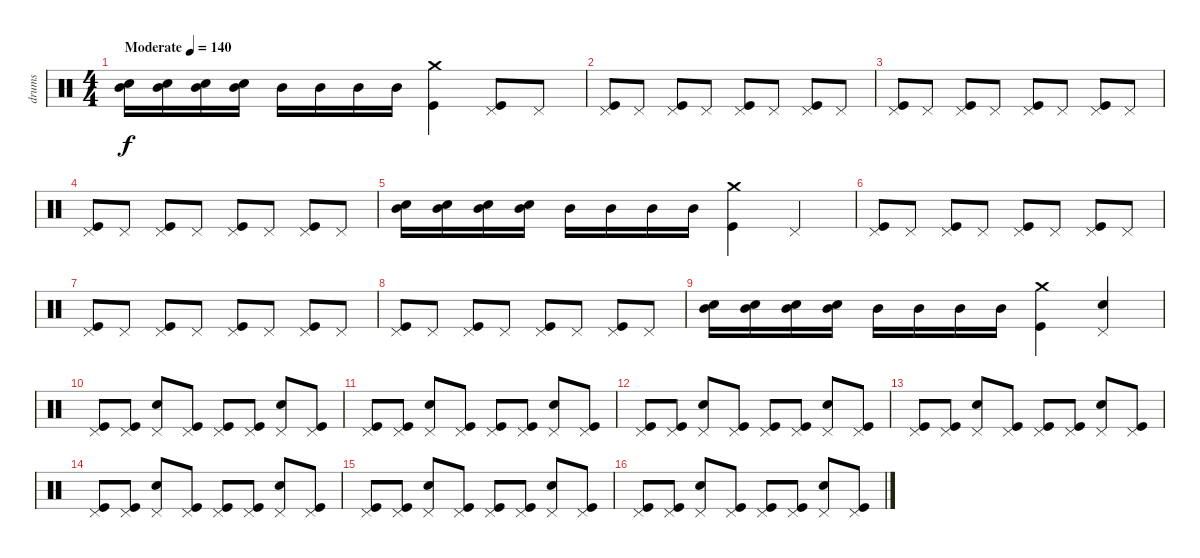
\track ("drums" "drums") {instrument percussion}
\staff {score}
\articulation defaults
\ts (4 4)
\tempo (140 "Moderate")
\clef neutral
\ks c
("Snare (hit) 2" "Mid Tom (hit)").16{dy f} ("Snare (hit) 2" "Mid Tom (hit)").16 ("Snare (hit) 2" "Mid Tom (hit)").16 ("Snare (hit) 2" "Mid Tom (hit)").16 "Mid Tom (hit)".16 "Mid Tom (hit)".16 "Mid Tom (hit)".16 "Mid Tom (hit)".16 ("Crash medium (hit)" "Kick (hit)").4 ("Pedal Hi-Hat (hit)" "Kick (hit)").8 "Pedal Hi-Hat (hit)".8 |
("Pedal Hi-Hat (hit)" "Kick (hit)").8 "Pedal Hi-Hat (hit)".8 ("Pedal Hi-Hat (hit)" "Kick (hit)").8 "Pedal Hi-Hat (hit)".8 ("Pedal Hi-Hat (hit)" "Kick (hit)").8 "Pedal Hi-Hat (hit)".8 ("Pedal Hi-Hat (hit)" "Kick (hit)").8 "Pedal Hi-Hat (hit)".8 |
("Pedal Hi-Hat (hit)" "Kick (hit)").8 "Pedal Hi-Hat (hit)".8 ("Pedal Hi-Hat (hit)" "Kick (hit)").8 "Pedal Hi-Hat (hit)".8 ("Pedal Hi-Hat (hit)" "Kick (hit)").8 "Pedal Hi-Hat (hit)".8 ("Pedal Hi-Hat (hit)" "Kick (hit)").8 "Pedal Hi-Hat (hit)".8 |
("Pedal Hi-Hat (hit)" "Kick (hit)").8 "Pedal Hi-Hat (hit)".8 ("Pedal Hi-Hat (hit)" "Kick (hit)").8 "Pedal Hi-Hat (hit)".8 ("Pedal Hi-Hat (hit)" "Kick (hit)").8 "Pedal Hi-Hat (hit)".8 ("Pedal Hi-Hat (hit)" "Kick (hit)").8 "Pedal Hi-Hat (hit)".8 |
("Snare (hit) 2" "Mid Tom (hit)").16 ("Snare (hit) 2" "Mid Tom (hit)").16 ("Snare (hit) 2" "Mid Tom (hit)").16 ("Snare (hit) 2" "Mid Tom (hit)").16 "Mid Tom (hit)".16 "Mid Tom (hit)".16 "Mid Tom (hit)".16 "Mid Tom (hit)".16 ("Crash medium (hit)" "Kick (hit)").4 "Pedal Hi-Hat (hit)".4 |
("Pedal Hi-Hat (hit)" "Kick (hit)").8 "Pedal Hi-Hat (hit)".8 ("Pedal Hi-Hat (hit)" "Kick (hit)").8 "Pedal Hi-Hat (hit)".8 ("Pedal Hi-Hat (hit)" "Kick (hit)").8 "Pedal Hi-Hat (hit)".8 ("Pedal Hi-Hat (hit)" "Kick (hit)").8 "Pedal Hi-Hat (hit)".8 |
("Pedal Hi-Hat (hit)" "Kick (hit)").8 "Pedal Hi-Hat (hit)".8 ("Pedal Hi-Hat (hit)" "Kick (hit)").8 "Pedal Hi-Hat (hit)".8 ("Pedal Hi-Hat (hit)" "Kick (hit)").8 "Pedal Hi-Hat (hit)".8 ("Pedal Hi-Hat (hit)" "Kick (hit)").8 "Pedal Hi-Hat (hit)".8 |
("Pedal Hi-Hat (hit)" "Kick (hit)").8 "Pedal Hi-Hat (hit)".8 ("Pedal Hi-Hat (hit)" "Kick (hit)").8 "Pedal Hi-Hat (hit)".8 ("Pedal Hi-Hat (hit)" "Kick (hit)").8 "Pedal Hi-Hat (hit)".8 ("Pedal Hi-Hat (hit)" "Kick (hit)").8 "Pedal Hi-Hat (hit)".8 |
("Snare (hit) 2" "Mid Tom (hit)").16 ("Snare (hit) 2" "Mid Tom (hit)").16 ("Snare (hit) 2" "Mid Tom (hit)").16 ("Snare (hit) 2" "Mid Tom (hit)").16 "Mid Tom (hit)".16 "Mid Tom (hit)".16 "Mid Tom (hit)".16 "Mid Tom (hit)".16 ("Crash medium (hit)" "Kick (hit)").4 ("Pedal Hi-Hat (hit)" "Snare (hit) 2").4 |
("Pedal Hi-Hat (hit)" "Kick (hit)").8 ("Pedal Hi-Hat (hit)" "Kick (hit)").8 ("Pedal Hi-Hat (hit)" "Snare (hit) 2").8 ("Pedal Hi-Hat (hit)" "Kick (hit)").8 ("Pedal Hi-Hat (hit)" "Kick (hit)").8 ("Pedal Hi-Hat (hit)" "Kick (hit)").8 ("Pedal Hi-Hat (hit)" "Snare (hit) 2").8 ("Pedal Hi-Hat (hit)" "Kick (hit)").8 |
("Pedal Hi-Hat (hit)" "Kick (hit)").8 ("Pedal Hi-Hat (hit)" "Kick (hit)").8 ("Pedal Hi-Hat (hit)" "Snare (hit) 2").8 ("Pedal Hi-Hat (hit)" "Kick (hit)").8 ("Pedal Hi-Hat (hit)" "Kick (hit)").8 ("Pedal Hi-Hat (hit)" "Kick (hit)").8 ("Pedal Hi-Hat (hit)" "Snare (hit) 2").8 ("Pedal Hi-Hat (hit)" "Kick (hit)").8 |
("Pedal Hi-Hat (hit)" "Kick (hit)").8 ("Pedal Hi-Hat (hit)" "Kick (hit)").8 ("Pedal Hi-Hat (hit)" "Snare (hit) 2").8 ("Pedal Hi-Hat (hit)" "Kick (hit)").8 ("Pedal Hi-Hat (hit)" "Kick (hit)").8 ("Pedal Hi-Hat (hit)" "Kick (hit)").8 ("Pedal Hi-Hat (hit)" "Snare (hit) 2").8 ("Pedal Hi-Hat (hit)" "Kick (hit)").8 |
("Pedal Hi-Hat (hit)" "Kick (hit)").8 ("Pedal Hi-Hat (hit)" "Kick (hit)").8 ("Pedal Hi-Hat (hit)" "Snare (hit) 2").8 ("Pedal Hi-Hat (hit)" "Kick (hit)").8 ("Pedal Hi-Hat (hit)" "Kick (hit)").8 ("Pedal Hi-Hat (hit)" "Kick (hit)").8 ("Pedal Hi-Hat (hit)" "Snare (hit) 2").8 ("Pedal Hi-Hat (hit)" "Kick (hit)").8 |
("Pedal Hi-Hat (hit)" "Kick (hit)").8 ("Pedal Hi-Hat (hit)" "Kick (hit)").8 ("Pedal Hi-Hat (hit)" "Snare (hit) 2").8 ("Pedal Hi-Hat (hit)" "Kick (hit)").8 ("Pedal Hi-Hat (hit)" "Kick (hit)").8 ("Pedal Hi-Hat (hit)" "Kick (hit)").8 ("Pedal Hi-Hat (hit)" "Snare (hit) 2").8 ("Pedal Hi-Hat (hit)" "Kick (hit)").8 |
("Pedal Hi-Hat (hit)" "Kick (hit)").8 ("Pedal Hi-Hat (hit)" "Kick (hit)").8 ("Pedal Hi-Hat (hit)" "Snare (hit) 2").8 ("Pedal Hi-Hat (hit)" "Kick (hit)").8 ("Pedal Hi-Hat (hit)" "Kick (hit)").8 ("Pedal Hi-Hat (hit)" "Kick (hit)").8 ("Pedal Hi-Hat (hit)" "Snare (hit) 2").8 ("Pedal Hi-Hat (hit)" "Kick (hit)").8 |
("Pedal Hi-Hat (hit)" "Kick (hit)").8 ("Pedal Hi-Hat (hit)" "Kick (hit)").8 ("Pedal Hi-Hat (hit)" "Snare (hit) 2").8 ("Pedal Hi-Hat (hit)" "Kick (hit)").8 ("Pedal Hi-Hat (hit)" "Kick (hit)").8 ("Pedal Hi-Hat (hit)" "Kick (hit)").8 ("Pedal Hi-Hat (hit)" "Snare (hit) 2").8 ("Pedal Hi-Hat (hit)" "Kick (hit)").8
